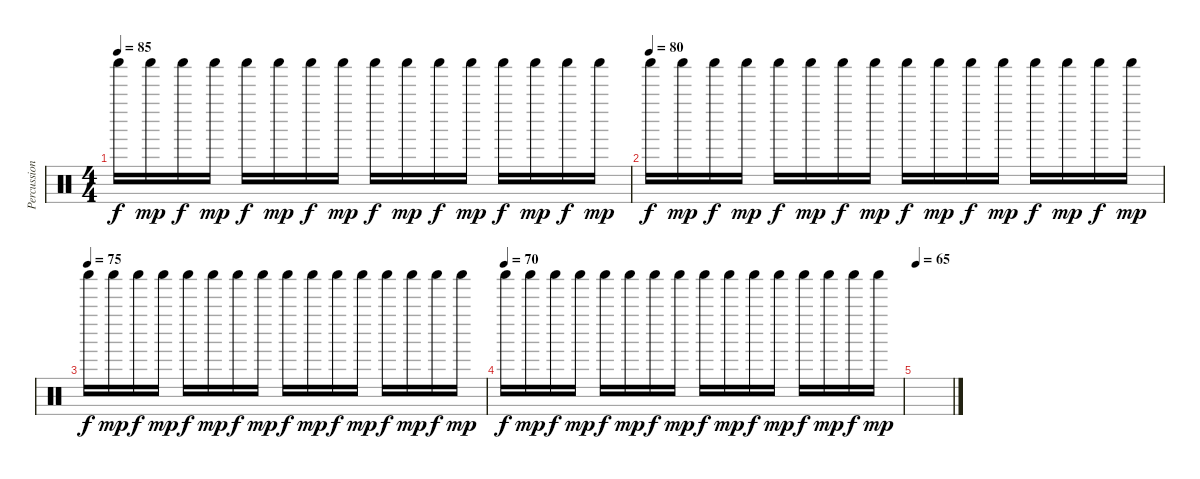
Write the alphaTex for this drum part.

\track ("Percussion" "Percussion") {instrument percussion}
\staff {score}
\articulation defaults
\ts (4 4)
\tempo 85
\clef neutral
\ks c "Shaker (hit)".16{dy f} "Shaker (hit)".16{dy mp} "Shaker (hit)".16{dy f} "Shaker (hit)".16{dy mp} "Shaker (hit)".16{dy f} "Shaker (hit)".16{dy mp} "Shaker (hit)".16{dy f} "Shaker (hit)".16{dy mp} "Shaker (hit)".16{dy f} "Shaker (hit)".16{dy mp} "Shaker (hit)".16{dy f} "Shaker (hit)".16{dy mp} "Shaker (hit)".16{dy f} "Shaker (hit)".16{dy mp} "Shaker (hit)".16{dy f} "Shaker (hit)".16{dy mp}
|
\tempo (80)
"Shaker (hit)".16{dy f} "Shaker (hit)".16{dy mp} "Shaker (hit)".16{dy f} "Shaker (hit)".16{dy mp} "Shaker (hit)".16{dy f} "Shaker (hit)".16{dy mp} "Shaker (hit)".16{dy f} "Shaker (hit)".16{dy mp} "Shaker (hit)".16{dy f} "Shaker (hit)".16{dy mp} "Shaker (hit)".16{dy f} "Shaker (hit)".16{dy mp} "Shaker (hit)".16{dy f} "Shaker (hit)".16{dy mp} "Shaker (hit)".16{dy f} "Shaker (hit)".16{dy mp} |
\tempo (75)
"Shaker (hit)".16{dy f} "Shaker (hit)".16{dy mp} "Shaker (hit)".16{dy f} "Shaker (hit)".16{dy mp} "Shaker (hit)".16{dy f} "Shaker (hit)".16{dy mp} "Shaker (hit)".16{dy f} "Shaker (hit)".16{dy mp} "Shaker (hit)".16{dy f} "Shaker (hit)".16{dy mp} "Shaker (hit)".16{dy f} "Shaker (hit)".16{dy mp} "Shaker (hit)".16{dy f} "Shaker (hit)".16{dy mp} "Shaker (hit)".16{dy f} "Shaker (hit)".16{dy mp} |
\tempo (70)
"Shaker (hit)".16{dy f} "Shaker (hit)".16{dy mp} "Shaker (hit)".16{dy f} "Shaker (hit)".16{dy mp} "Shaker (hit)".16{dy f} "Shaker (hit)".16{dy mp} "Shaker (hit)".16{dy f} "Shaker (hit)".16{dy mp} "Shaker (hit)".16{dy f} "Shaker (hit)".16{dy mp} "Shaker (hit)".16{dy f} "Shaker (hit)".16{dy mp} "Shaker (hit)".16{dy f} "Shaker (hit)".16{dy mp} "Shaker (hit)".16{dy f} "Shaker (hit)".16{dy mp} |
\tempo 65
